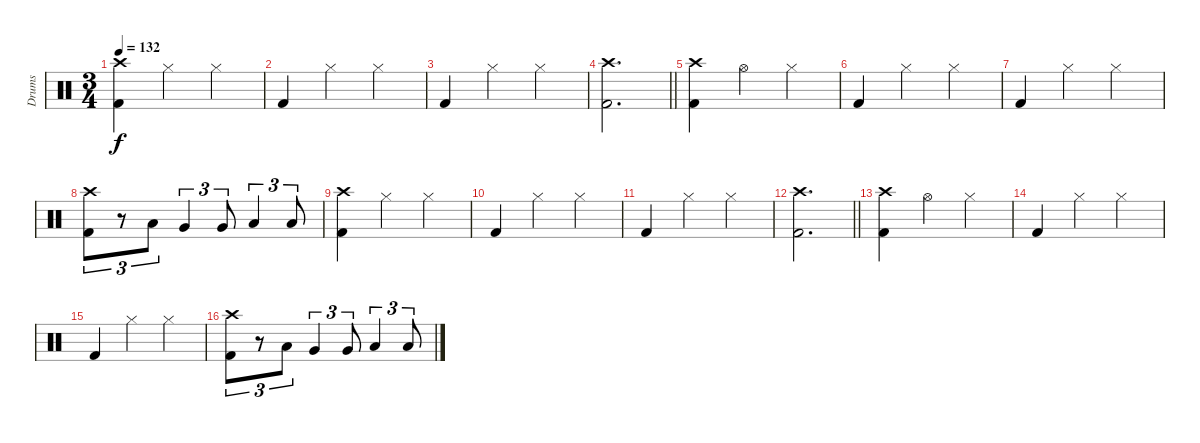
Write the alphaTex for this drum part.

\track ("Drums" "Drums") {instrument percussion}
\staff {score}
\articulation defaults
\ts (3 4)
\tempo 132
\clef neutral
\ks c
("Crash high (hit)" "Kick (hit) 2").4{dy f} "Hi-Hat (closed)".4 "Hi-Hat (closed)".4 |
"Kick (hit) 2".4 "Hi-Hat (closed)".4 "Hi-Hat (closed)".4 |
"Kick (hit) 2".4 "Hi-Hat (closed)".4 "Hi-Hat (closed)".4 |
\barLineRight lightlight
("Crash high (hit)" "Kick (hit) 2").2{d} |
("Crash high (hit)" "Kick (hit) 2").4 "Hi-Hat (open)".4 "Hi-Hat (closed)".4 |
"Kick (hit) 2".4 "Hi-Hat (closed)".4 "Hi-Hat (closed)".4 |
"Kick (hit) 2".4 "Hi-Hat (closed)".4 "Hi-Hat (closed)".4 |
("Crash high (hit)" "Kick (hit) 2").8{tu (3 2)} r.8{tu (3 2)} "Low Tom (hit)".8{tu (3 2)} "Very Low Tom (hit)".4{tu (3 2)} "Very Low Tom (hit)".8{tu (3 2)} "Low Floor Tom (hit)".4{tu (3 2)} "Low Floor Tom (hit)".8{tu (3 2)} |
("Crash high (hit)" "Kick (hit) 2").4 "Hi-Hat (closed)".4 "Hi-Hat (closed)".4 |
"Kick (hit) 2".4 "Hi-Hat (closed)".4 "Hi-Hat (closed)".4 |
"Kick (hit) 2".4 "Hi-Hat (closed)".4 "Hi-Hat (closed)".4 |
\barLineRight lightlight
("Crash high (hit)" "Kick (hit) 2").2{d} |
("Crash high (hit)" "Kick (hit) 2").4 "Hi-Hat (open)".4 "Hi-Hat (closed)".4 |
"Kick (hit) 2".4 "Hi-Hat (closed)".4 "Hi-Hat (closed)".4 |
"Kick (hit) 2".4 "Hi-Hat (closed)".4 "Hi-Hat (closed)".4 |
("Crash high (hit)" "Kick (hit) 2").8{tu (3 2)} r.8{tu (3 2)} "Low Tom (hit)".8{tu (3 2)} "Very Low Tom (hit)".4{tu (3 2)} "Very Low Tom (hit)".8{tu (3 2)} "Low Floor Tom (hit)".4{tu (3 2)} "Low Floor Tom (hit)".8{tu (3 2)}
